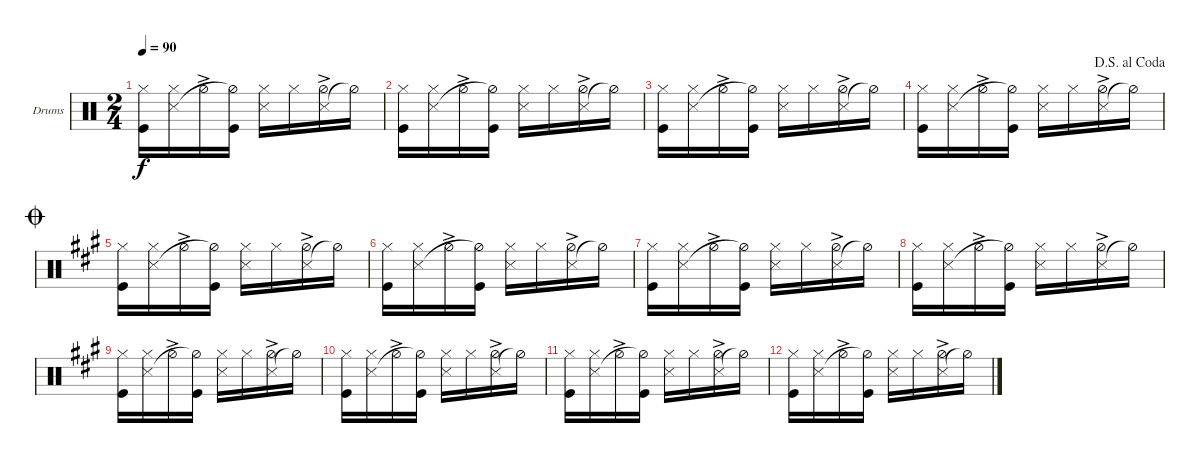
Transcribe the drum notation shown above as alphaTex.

\defaultSystemsLayout 4
\bracketExtendMode groupsimilarinstruments
\firstSystemTrackNameOrientation horizontal
\otherSystemsTrackNameOrientation horizontal
\track ("Bateria" "Drums") {instrument percussion}
\staff {score}
\articulation defaults
\ts (2 4)
\tempo 90
\clef neutral
\scale
0.973518
\ks aminor
("Hi-Hat (closed)" "Kick (hit)").16{dy f} ("Hi-Hat (closed)" "Snare (side stick) 3").16 "Hi-Hat (half)"{ac}.16 ("Kick (hit)" "Hi-Hat (half)"{t}).16 ("Hi-Hat (closed)" "Snare (side stick) 3").16 "Hi-Hat (closed)".16 ("Snare (side stick) 3" "Hi-Hat (half)"{ac}).16 "Hi-Hat (half)"{t}.16 |
\scale
1.10593 ("Hi-Hat (closed)" "Kick (hit)").16 ("Hi-Hat (closed)" "Snare (side stick) 3").16 "Hi-Hat (half)"{ac}.16 ("Kick (hit)" "Hi-Hat (half)"{t}).16 ("Hi-Hat (closed)" "Snare (side stick) 3").16 "Hi-Hat (closed)".16 ("Snare (side stick) 3" "Hi-Hat (half)"{ac}).16 "Hi-Hat (half)"{t}.16 |
\scale
0.973518 ("Hi-Hat (closed)" "Kick (hit)").16 ("Hi-Hat (closed)" "Snare (side stick) 3").16 "Hi-Hat (half)"{ac}.16 ("Kick (hit)" "Hi-Hat (half)"{t}).16 ("Hi-Hat (closed)" "Snare (side stick) 3").16 "Hi-Hat (closed)".16 ("Snare (side stick) 3" "Hi-Hat (half)"{ac}).16 "Hi-Hat (half)"{t}.16 |
\jump dalsegnoalcoda
\scale
0.973518 ("Hi-Hat (closed)" "Kick (hit)").16 ("Hi-Hat (closed)" "Snare (side stick) 3").16 "Hi-Hat (half)"{ac}.16 ("Kick (hit)" "Hi-Hat (half)"{t}).16 ("Hi-Hat (closed)" "Snare (side stick) 3").16 "Hi-Hat (closed)".16 ("Snare (side stick) 3" "Hi-Hat (half)"{ac}).16 "Hi-Hat (half)"{t}.16 |
\jump coda
\scale
0.973518
\ks a
("Hi-Hat (closed)" "Kick (hit)").16 ("Hi-Hat (closed)" "Snare (side stick) 3").16 "Hi-Hat (half)"{ac}.16 ("Kick (hit)" "Hi-Hat (half)"{t}).16 ("Hi-Hat (closed)" "Snare (side stick) 3").16 "Hi-Hat (closed)".16 ("Snare (side stick) 3" "Hi-Hat (half)"{ac}).16 "Hi-Hat (half)"{t}.16 |
\scale
0.973518 ("Hi-Hat (closed)" "Kick (hit)").16 ("Hi-Hat (closed)" "Snare (side stick) 3").16 "Hi-Hat (half)"{ac}.16 ("Kick (hit)" "Hi-Hat (half)"{t}).16 ("Hi-Hat (closed)" "Snare (side stick) 3").16 "Hi-Hat (closed)".16 ("Snare (side stick) 3" "Hi-Hat (half)"{ac}).16 "Hi-Hat (half)"{t}.16 |
\scale
1.23203 ("Hi-Hat (closed)" "Kick (hit)").16 ("Hi-Hat (closed)" "Snare (side stick) 3").16 "Hi-Hat (half)"{ac}.16 ("Kick (hit)" "Hi-Hat (half)"{t}).16 ("Hi-Hat (closed)" "Snare (side stick) 3").16 "Hi-Hat (closed)".16 ("Snare (side stick) 3" "Hi-Hat (half)"{ac}).16 "Hi-Hat (half)"{t}.16 |
\scale
0.941992 ("Hi-Hat (closed)" "Kick (hit)").16 ("Hi-Hat (closed)" "Snare (side stick) 3").16 "Hi-Hat (half)"{ac}.16 ("Kick (hit)" "Hi-Hat (half)"{t}).16 ("Hi-Hat (closed)" "Snare (side stick) 3").16 "Hi-Hat (closed)".16 ("Snare (side stick) 3" "Hi-Hat (half)"{ac}).16 "Hi-Hat (half)"{t}.16 |
\scale
0.941992 ("Hi-Hat (closed)" "Kick (hit)").16 ("Hi-Hat (closed)" "Snare (side stick) 3").16 "Hi-Hat (half)"{ac}.16 ("Kick (hit)" "Hi-Hat (half)"{t}).16 ("Hi-Hat (closed)" "Snare (side stick) 3").16 "Hi-Hat (closed)".16 ("Snare (side stick) 3" "Hi-Hat (half)"{ac}).16 "Hi-Hat (half)"{t}.16 |
\scale
0.941992 ("Hi-Hat (closed)" "Kick (hit)").16 ("Hi-Hat (closed)" "Snare (side stick) 3").16 "Hi-Hat (half)"{ac}.16 ("Kick (hit)" "Hi-Hat (half)"{t}).16 ("Hi-Hat (closed)" "Snare (side stick) 3").16 "Hi-Hat (closed)".16 ("Snare (side stick) 3" "Hi-Hat (half)"{ac}).16 "Hi-Hat (half)"{t}.16 |
\scale
0.941992 ("Hi-Hat (closed)" "Kick (hit)").16 ("Hi-Hat (closed)" "Snare (side stick) 3").16 "Hi-Hat (half)"{ac}.16 ("Kick (hit)" "Hi-Hat (half)"{t}).16 ("Hi-Hat (closed)" "Snare (side stick) 3").16 "Hi-Hat (closed)".16 ("Snare (side stick) 3" "Hi-Hat (half)"{ac}).16 "Hi-Hat (half)"{t}.16 |
("Hi-Hat (closed)" "Kick (hit)").16 ("Hi-Hat (closed)" "Snare (side stick) 3").16 "Hi-Hat (half)"{ac}.16 ("Kick (hit)" "Hi-Hat (half)"{t}).16 ("Hi-Hat (closed)" "Snare (side stick) 3").16 "Hi-Hat (closed)".16 ("Snare (side stick) 3" "Hi-Hat (half)"{ac}).16 "Hi-Hat (half)"{t}.16
